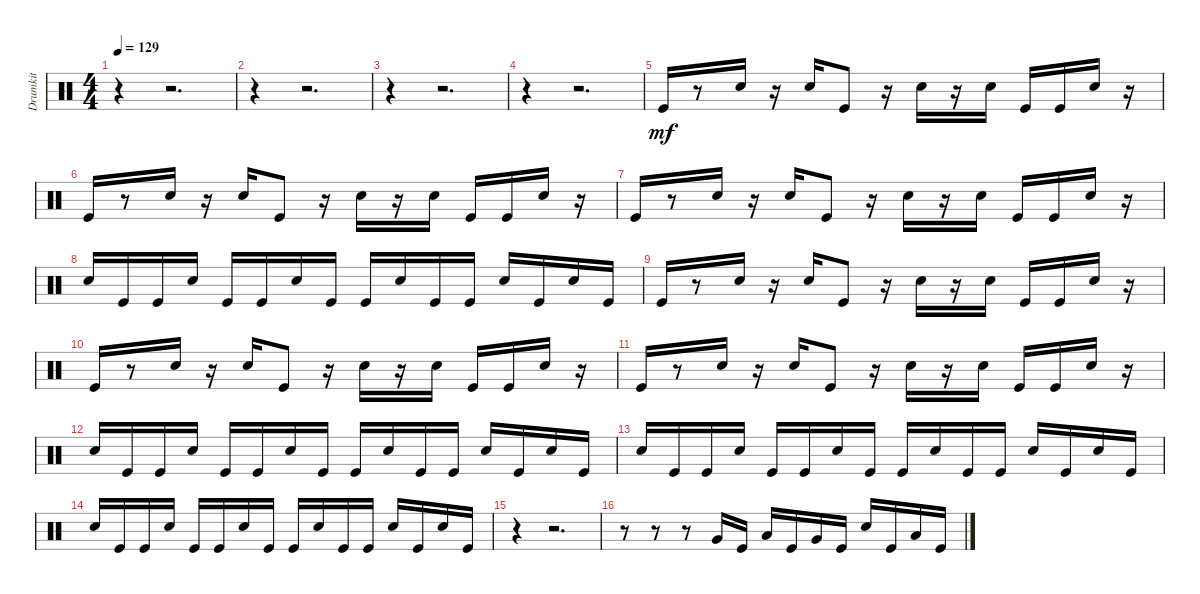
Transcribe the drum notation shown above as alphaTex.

\track ("Drumkit" "Drumkit") {instrument percussion}
\staff {score}
\articulation defaults
\ts (4 4)
\tempo 129
\clef neutral
\ks c
r.4{dy mf} r.2{d} |
r.4 r.2{d} |
r.4 r.2{d} |
r.4 r.2{d} |
"Kick (hit)".16 r.8 "Snare (hit) 2".16 r.16 "Snare (hit) 2".16 "Kick (hit)".8 r.16 "Snare (hit) 2".16 r.16 "Snare (hit) 2".16 "Kick (hit)".16 "Kick (hit)".16 "Snare (hit) 2".16 r.16 |
"Kick (hit)".16 r.8 "Snare (hit) 2".16 r.16 "Snare (hit) 2".16 "Kick (hit)".8 r.16 "Snare (hit) 2".16 r.16 "Snare (hit) 2".16 "Kick (hit)".16 "Kick (hit)".16 "Snare (hit) 2".16 r.16 |
"Kick (hit)".16 r.8 "Snare (hit) 2".16 r.16 "Snare (hit) 2".16 "Kick (hit)".8 r.16 "Snare (hit) 2".16 r.16 "Snare (hit) 2".16 "Kick (hit)".16 "Kick (hit)".16 "Snare (hit) 2".16 r.16 |
"Snare (hit) 2".16 "Kick (hit)".16 "Kick (hit)".16 "Snare (hit) 2".16 "Kick (hit)".16 "Kick (hit)".16 "Snare (hit) 2".16 "Kick (hit)".16 "Kick (hit)".16 "Snare (hit) 2".16 "Kick (hit)".16 "Kick (hit)".16 "Snare (hit) 2".16 "Kick (hit)".16 "Snare (hit) 2".16 "Kick (hit)".16 |
"Kick (hit)".16 r.8 "Snare (hit) 2".16 r.16 "Snare (hit) 2".16 "Kick (hit)".8 r.16 "Snare (hit) 2".16 r.16 "Snare (hit) 2".16 "Kick (hit)".16 "Kick (hit)".16 "Snare (hit) 2".16 r.16 |
"Kick (hit)".16 r.8 "Snare (hit) 2".16 r.16 "Snare (hit) 2".16 "Kick (hit)".8 r.16 "Snare (hit) 2".16 r.16 "Snare (hit) 2".16 "Kick (hit)".16 "Kick (hit)".16 "Snare (hit) 2".16 r.16 |
"Kick (hit)".16 r.8 "Snare (hit) 2".16 r.16 "Snare (hit) 2".16 "Kick (hit)".8 r.16 "Snare (hit) 2".16 r.16 "Snare (hit) 2".16 "Kick (hit)".16 "Kick (hit)".16 "Snare (hit) 2".16 r.16 |
"Snare (hit) 2".16 "Kick (hit)".16 "Kick (hit)".16 "Snare (hit) 2".16 "Kick (hit)".16 "Kick (hit)".16 "Snare (hit) 2".16 "Kick (hit)".16 "Kick (hit)".16 "Snare (hit) 2".16 "Kick (hit)".16 "Kick (hit)".16 "Snare (hit) 2".16 "Kick (hit)".16 "Snare (hit) 2".16 "Kick (hit)".16 |
"Snare (hit) 2".16 "Kick (hit)".16 "Kick (hit)".16 "Snare (hit) 2".16 "Kick (hit)".16 "Kick (hit)".16 "Snare (hit) 2".16 "Kick (hit)".16 "Kick (hit)".16 "Snare (hit) 2".16 "Kick (hit)".16 "Kick (hit)".16 "Snare (hit) 2".16 "Kick (hit)".16 "Snare (hit) 2".16 "Kick (hit)".16 |
"Snare (hit) 2".16 "Kick (hit)".16 "Kick (hit)".16 "Snare (hit) 2".16 "Kick (hit)".16 "Kick (hit)".16 "Snare (hit) 2".16 "Kick (hit)".16 "Kick (hit)".16 "Snare (hit) 2".16 "Kick (hit)".16 "Kick (hit)".16 "Snare (hit) 2".16 "Kick (hit)".16 "Snare (hit) 2".16 "Kick (hit)".16 |
r.4 r.2{d} |
r.8 r.8 r.8 "Very Low Tom (hit)".16 "Kick (hit)".16 "Low Floor Tom (hit)".16 "Kick (hit)".16 "Very Low Tom (hit)".16 "Kick (hit)".16 "Snare (hit) 2".16 "Kick (hit)".16 "Low Floor Tom (hit)".16 "Kick (hit)".16
